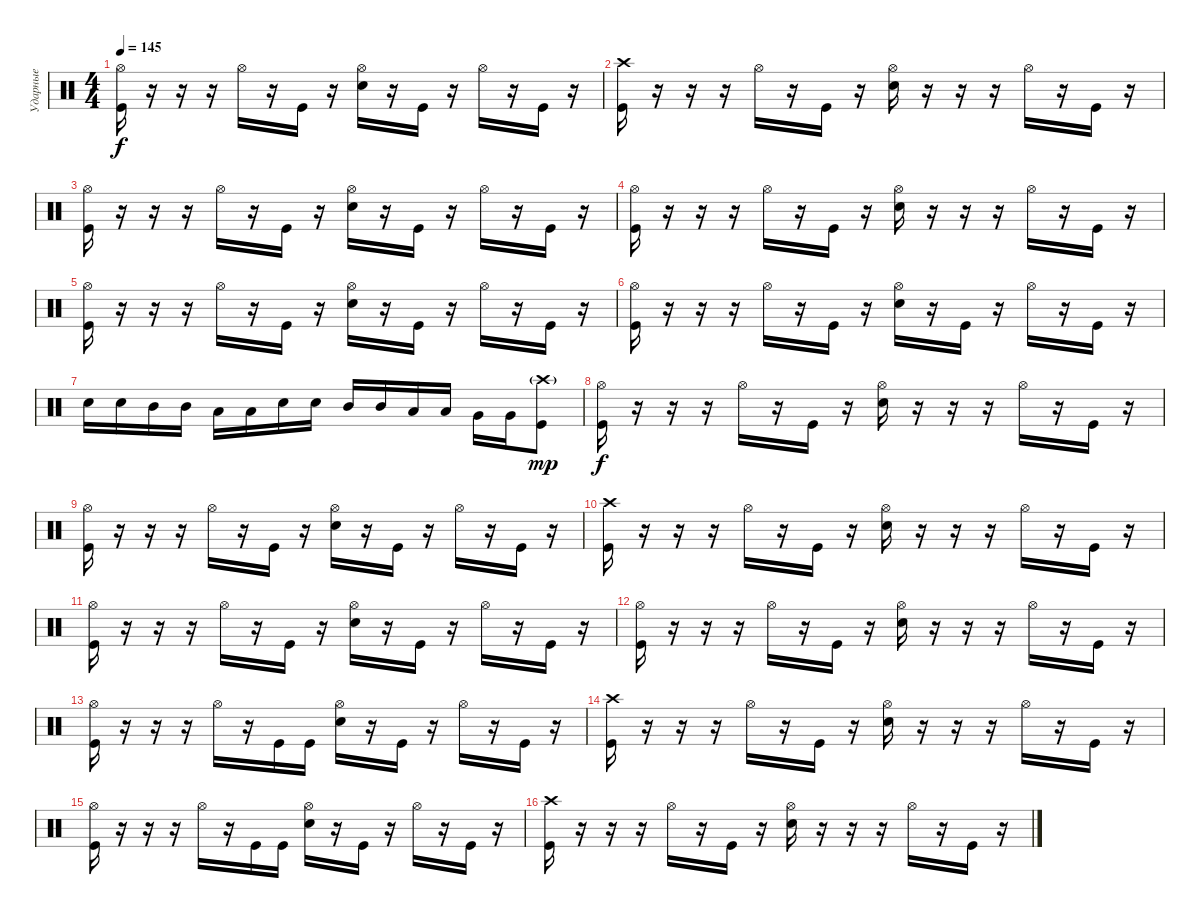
\track ("Ударные" "Ударные") {instrument percussion}
\staff {score}
\articulation defaults
\ts (4 4)
\tempo 145
\clef neutral
\ks c
("Hi-Hat (open)" "Kick (hit)").16{dy f} r.16 r.16 r.16 "Hi-Hat (open)".16 r.16 "Kick (hit)".16 r.16 ("Hi-Hat (open)" "Snare (hit) 2").16 r.16 "Kick (hit)".16 r.16 "Hi-Hat (open)".16 r.16 "Kick (hit)".16 r.16 |
("Crash high (hit)" "Kick (hit)").16 r.16 r.16 r.16 "Hi-Hat (open)".16 r.16 "Kick (hit)".16 r.16 ("Hi-Hat (open)" "Snare (hit) 2").16 r.16 r.16 r.16 "Hi-Hat (open)".16 r.16 "Kick (hit)".16 r.16 |
("Hi-Hat (open)" "Kick (hit)").16 r.16 r.16 r.16 "Hi-Hat (open)".16 r.16 "Kick (hit)".16 r.16 ("Hi-Hat (open)" "Snare (hit) 2").16 r.16 "Kick (hit)".16 r.16 "Hi-Hat (open)".16 r.16 "Kick (hit)".16 r.16 |
("Hi-Hat (open)" "Kick (hit)").16 r.16 r.16 r.16 "Hi-Hat (open)".16 r.16 "Kick (hit)".16 r.16 ("Hi-Hat (open)" "Snare (hit) 2").16 r.16 r.16 r.16 "Hi-Hat (open)".16 r.16 "Kick (hit)".16 r.16 |
("Hi-Hat (open)" "Kick (hit)").16 r.16 r.16 r.16 "Hi-Hat (open)".16 r.16 "Kick (hit)".16 r.16 ("Hi-Hat (open)" "Snare (hit) 2").16 r.16 "Kick (hit)".16 r.16 "Hi-Hat (open)".16 r.16 "Kick (hit)".16 r.16 |
("Hi-Hat (open)" "Kick (hit)").16 r.16 r.16 r.16 "Hi-Hat (open)".16 r.16 "Kick (hit)".16 r.16 ("Hi-Hat (open)" "Snare (hit) 2").16 r.16 "Kick (hit)".16 r.16 "Hi-Hat (open)".16 r.16 "Kick (hit)".16 r.16 |
"Snare (hit) 2".16 "Snare (hit) 2".16 "Mid Tom (hit)".16 "Mid Tom (hit)".16 "Low Tom (hit)".16 "Low Tom (hit)".16 "Snare (hit) 2".16 "Snare (hit) 2".16 "Mid Tom (hit)".16 "Mid Tom (hit)".16 "Low Tom (hit)".16 "Low Tom (hit)".16 "Very Low Tom (hit)".16 "Very Low Tom (hit)".16 ("Crash high (hit)"{g} "Kick (hit)").8{dy mp} |
("Hi-Hat (open)" "Kick (hit)").16{dy f} r.16 r.16 r.16 "Hi-Hat (open)".16 r.16 "Kick (hit)".16 r.16 ("Hi-Hat (open)" "Snare (hit) 2").16 r.16 r.16 r.16 "Hi-Hat (open)".16 r.16 "Kick (hit)".16 r.16 |
("Hi-Hat (open)" "Kick (hit)").16 r.16 r.16 r.16 "Hi-Hat (open)".16 r.16 "Kick (hit)".16 r.16 ("Hi-Hat (open)" "Snare (hit) 2").16 r.16 "Kick (hit)".16 r.16 "Hi-Hat (open)".16 r.16 "Kick (hit)".16 r.16 |
("Crash high (hit)" "Kick (hit)").16 r.16 r.16 r.16 "Hi-Hat (open)".16 r.16 "Kick (hit)".16 r.16 ("Hi-Hat (open)" "Snare (hit) 2").16 r.16 r.16 r.16 "Hi-Hat (open)".16 r.16 "Kick (hit)".16 r.16 |
("Hi-Hat (open)" "Kick (hit)").16 r.16 r.16 r.16 "Hi-Hat (open)".16 r.16 "Kick (hit)".16 r.16 ("Hi-Hat (open)" "Snare (hit) 2").16 r.16 "Kick (hit)".16 r.16 "Hi-Hat (open)".16 r.16 "Kick (hit)".16 r.16 |
("Hi-Hat (open)" "Kick (hit)").16 r.16 r.16 r.16 "Hi-Hat (open)".16 r.16 "Kick (hit)".16 r.16 ("Hi-Hat (open)" "Snare (hit) 2").16 r.16 r.16 r.16 "Hi-Hat (open)".16 r.16 "Kick (hit)".16 r.16 |
("Hi-Hat (open)" "Kick (hit)").16 r.16 r.16 r.16 "Hi-Hat (open)".16 r.16 "Kick (hit)".16 "Kick (hit)".16 ("Hi-Hat (open)" "Snare (hit) 2").16 r.16 "Kick (hit)".16 r.16 "Hi-Hat (open)".16 r.16 "Kick (hit)".16 r.16 |
("Crash high (hit)" "Kick (hit)").16 r.16 r.16 r.16 "Hi-Hat (open)".16 r.16 "Kick (hit)".16 r.16 ("Hi-Hat (open)" "Snare (hit) 2").16 r.16 r.16 r.16 "Hi-Hat (open)".16 r.16 "Kick (hit)".16 r.16 |
("Hi-Hat (open)" "Kick (hit)").16 r.16 r.16 r.16 "Hi-Hat (open)".16 r.16 "Kick (hit)".16 "Kick (hit)".16 ("Hi-Hat (open)" "Snare (hit) 2").16 r.16 "Kick (hit)".16 r.16 "Hi-Hat (open)".16 r.16 "Kick (hit)".16 r.16 |
("Crash high (hit)" "Kick (hit)").16 r.16 r.16 r.16 "Hi-Hat (open)".16 r.16 "Kick (hit)".16 r.16 ("Hi-Hat (open)" "Snare (hit) 2").16 r.16 r.16 r.16 "Hi-Hat (open)".16 r.16 "Kick (hit)".16 r.16
